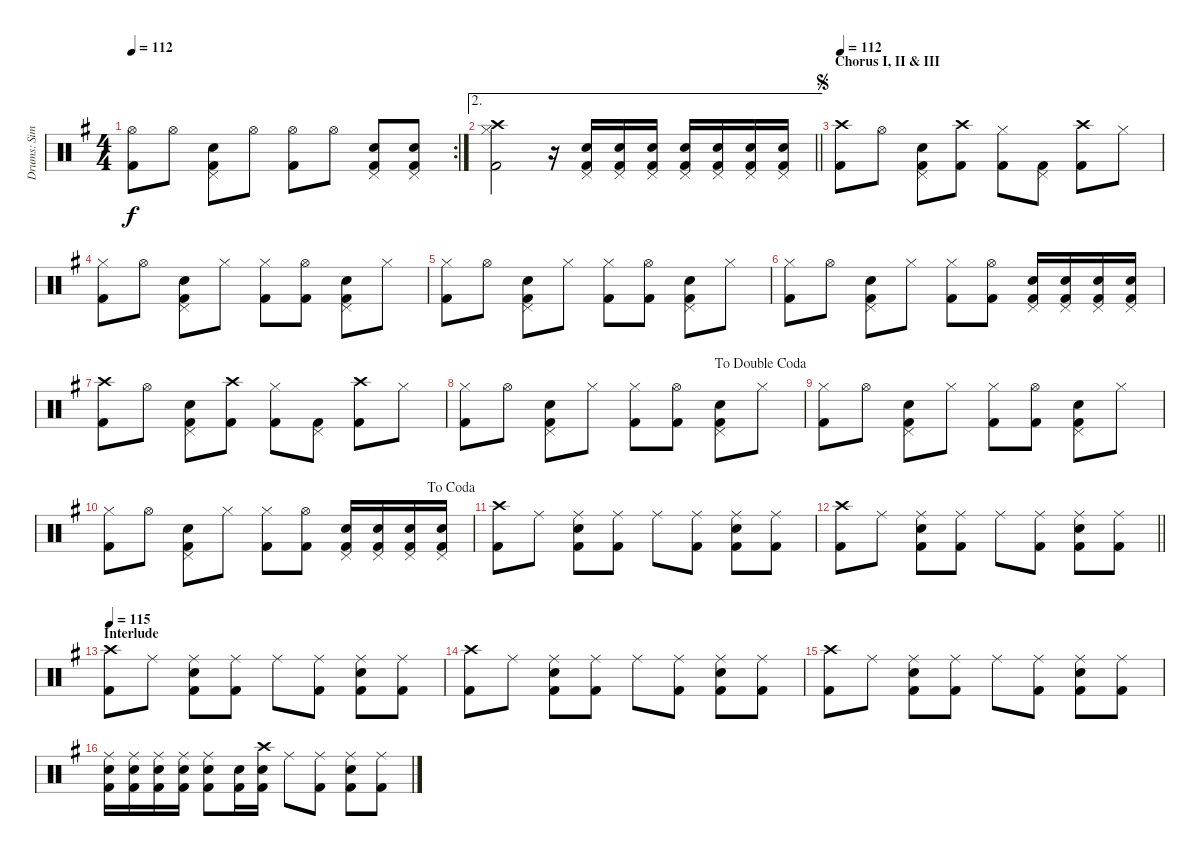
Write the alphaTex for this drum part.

\track ("Drums: Simon" "Drums: Sim") {instrument percussion}
\staff {score}
\articulation defaults
\rc 2
\ts (4 4)
\tempo 112
\clef neutral
\ks g
("Hi-Hat (open)" "Kick (hit) 2").8{dy f} "Hi-Hat (open)".8 ("Pedal Hi-Hat (hit)" "Snare (hit) 2" "Kick (hit) 2").8 "Hi-Hat (open)".8 ("Hi-Hat (open)" "Kick (hit) 2").8 "Hi-Hat (open)".8 ("Pedal Hi-Hat (hit)" "Snare (hit) 2" "Kick (hit) 2").8 ("Pedal Hi-Hat (hit)" "Snare (hit) 2" "Kick (hit) 2").8 |
\ae 2
\barLineRight lightlight
("Crash high (hit)" "Hi-Hat (closed)" "Kick (hit) 2").2 r.16 ("Pedal Hi-Hat (hit)" "Snare (hit) 2" "Kick (hit) 2").16 ("Pedal Hi-Hat (hit)" "Snare (hit) 2" "Kick (hit) 2").16 ("Pedal Hi-Hat (hit)" "Snare (hit) 2" "Kick (hit) 2").16 ("Pedal Hi-Hat (hit)" "Snare (hit) 2" "Kick (hit) 2").16 ("Pedal Hi-Hat (hit)" "Snare (hit) 2" "Kick (hit) 2").16 ("Pedal Hi-Hat (hit)" "Snare (hit) 2" "Kick (hit) 2").16 ("Pedal Hi-Hat (hit)" "Snare (hit) 2" "Kick (hit) 2").16 |
\section ("" "Chorus I, II & III")
\jump segno
\tempo 112
("Crash high (hit)" "Kick (hit) 2").8 "Hi-Hat (open)".8 ("Pedal Hi-Hat (hit)" "Snare (hit) 2" "Kick (hit) 2").8 ("Crash high (hit)" "Kick (hit) 2").8 ("Hi-Hat (closed)" "Kick (hit) 2").8 ("Pedal Hi-Hat (hit)" "Kick (hit) 2").8 ("Crash high (hit)" "Kick (hit) 2").8 "Hi-Hat (closed)".8 |
("Hi-Hat (closed)" "Kick (hit) 2").8 "Hi-Hat (open)".8 ("Pedal Hi-Hat (hit)" "Snare (hit) 2" "Kick (hit) 2").8 "Hi-Hat (closed)".8 ("Hi-Hat (closed)" "Kick (hit) 2").8 ("Hi-Hat (open)" "Kick (hit) 2").8 ("Pedal Hi-Hat (hit)" "Snare (hit) 2" "Kick (hit) 2").8 "Hi-Hat (closed)".8 |
("Hi-Hat (closed)" "Kick (hit) 2").8 "Hi-Hat (open)".8 ("Pedal Hi-Hat (hit)" "Snare (hit) 2" "Kick (hit) 2").8 "Hi-Hat (closed)".8 ("Hi-Hat (closed)" "Kick (hit) 2").8 ("Hi-Hat (open)" "Kick (hit) 2").8 ("Pedal Hi-Hat (hit)" "Snare (hit) 2" "Kick (hit) 2").8 "Hi-Hat (closed)".8 |
("Hi-Hat (closed)" "Kick (hit) 2").8 "Hi-Hat (open)".8 ("Pedal Hi-Hat (hit)" "Snare (hit) 2" "Kick (hit) 2").8 "Hi-Hat (closed)".8 ("Hi-Hat (closed)" "Kick (hit) 2").8 ("Hi-Hat (open)" "Kick (hit) 2").8 ("Pedal Hi-Hat (hit)" "Snare (hit) 2" "Kick (hit) 2").16 ("Pedal Hi-Hat (hit)" "Snare (hit) 2" "Kick (hit) 2").16 ("Pedal Hi-Hat (hit)" "Snare (hit) 2" "Kick (hit) 2").16 ("Pedal Hi-Hat (hit)" "Snare (hit) 2" "Kick (hit) 2").16 |
("Crash high (hit)" "Kick (hit) 2").8 "Hi-Hat (open)".8 ("Pedal Hi-Hat (hit)" "Snare (hit) 2" "Kick (hit) 2").8 ("Crash high (hit)" "Kick (hit) 2").8 ("Hi-Hat (closed)" "Kick (hit) 2").8 ("Pedal Hi-Hat (hit)" "Kick (hit) 2").8 ("Crash high (hit)" "Kick (hit) 2").8 "Hi-Hat (closed)".8 |
\jump dadoublecoda
("Hi-Hat (closed)" "Kick (hit) 2").8 "Hi-Hat (open)".8 ("Pedal Hi-Hat (hit)" "Snare (hit) 2" "Kick (hit) 2").8 "Hi-Hat (closed)".8 ("Hi-Hat (closed)" "Kick (hit) 2").8 ("Hi-Hat (open)" "Kick (hit) 2").8 ("Pedal Hi-Hat (hit)" "Snare (hit) 2" "Kick (hit) 2").8 "Hi-Hat (closed)".8 |
("Hi-Hat (closed)" "Kick (hit) 2").8 "Hi-Hat (open)".8 ("Pedal Hi-Hat (hit)" "Snare (hit) 2" "Kick (hit) 2").8 "Hi-Hat (closed)".8 ("Hi-Hat (closed)" "Kick (hit) 2").8 ("Hi-Hat (open)" "Kick (hit) 2").8 ("Pedal Hi-Hat (hit)" "Snare (hit) 2" "Kick (hit) 2").8 "Hi-Hat (closed)".8 |
\jump dacoda
("Hi-Hat (closed)" "Kick (hit) 2").8 "Hi-Hat (open)".8 ("Pedal Hi-Hat (hit)" "Snare (hit) 2" "Kick (hit) 2").8 "Hi-Hat (closed)".8 ("Hi-Hat (closed)" "Kick (hit) 2").8 ("Hi-Hat (open)" "Kick (hit) 2").8 ("Pedal Hi-Hat (hit)" "Snare (hit) 2" "Kick (hit) 2").16 ("Pedal Hi-Hat (hit)" "Snare (hit) 2" "Kick (hit) 2").16 ("Pedal Hi-Hat (hit)" "Snare (hit) 2" "Kick (hit) 2").16 ("Pedal Hi-Hat (hit)" "Snare (hit) 2" "Kick (hit) 2").16 |
("Crash high (hit)" "Kick (hit) 2").8 "Ride (middle)".8 ("Ride (middle)" "Snare (hit) 2" "Kick (hit) 2").8 ("Ride (middle)" "Kick (hit) 2").8 "Ride (middle)".8 ("Ride (middle)" "Kick (hit) 2").8 ("Ride (middle)" "Snare (hit) 2" "Kick (hit) 2").8 ("Ride (middle)" "Kick (hit) 2").8 |
\barLineRight lightlight
("Crash high (hit)" "Kick (hit) 2").8 "Ride (middle)".8 ("Ride (middle)" "Snare (hit) 2" "Kick (hit) 2").8 ("Ride (middle)" "Kick (hit) 2").8 "Ride (middle)".8 ("Ride (middle)" "Kick (hit) 2").8 ("Ride (middle)" "Snare (hit) 2" "Kick (hit) 2").8 ("Ride (middle)" "Kick (hit) 2").8 |
\section ("" "Interlude")
\tempo 115
("Crash high (hit)" "Kick (hit) 2").8 "Ride (middle)".8 ("Ride (middle)" "Snare (hit) 2" "Kick (hit) 2").8 ("Ride (middle)" "Kick (hit) 2").8 "Ride (middle)".8 ("Ride (middle)" "Kick (hit) 2").8 ("Ride (middle)" "Snare (hit) 2" "Kick (hit) 2").8 ("Ride (middle)" "Kick (hit) 2").8 |
("Crash high (hit)" "Kick (hit) 2").8 "Ride (middle)".8 ("Ride (middle)" "Snare (hit) 2" "Kick (hit) 2").8 ("Ride (middle)" "Kick (hit) 2").8 "Ride (middle)".8 ("Ride (middle)" "Kick (hit) 2").8 ("Ride (middle)" "Snare (hit) 2" "Kick (hit) 2").8 ("Ride (middle)" "Kick (hit) 2").8 |
("Crash high (hit)" "Kick (hit) 2").8 "Ride (middle)".8 ("Ride (middle)" "Snare (hit) 2" "Kick (hit) 2").8 ("Ride (middle)" "Kick (hit) 2").8 "Ride (middle)".8 ("Ride (middle)" "Kick (hit) 2").8 ("Ride (middle)" "Snare (hit) 2" "Kick (hit) 2").8 ("Ride (middle)" "Kick (hit) 2").8 |
("Ride (middle)" "Snare (hit) 2" "Kick (hit) 2").16 ("Ride (middle)" "Snare (hit) 2" "Kick (hit) 2").16 ("Ride (middle)" "Snare (hit) 2" "Kick (hit) 2").16 ("Ride (middle)" "Snare (hit) 2" "Kick (hit) 2").16 ("Ride (middle)" "Snare (hit) 2" "Kick (hit) 2").8 ("Snare (hit) 2" "Kick (hit) 2").16 ("Crash high (hit)" "Snare (hit) 2" "Kick (hit) 2").16 "Ride (middle)".8 ("Ride (middle)" "Kick (hit) 2").8 ("Ride (middle)" "Snare (hit) 2" "Kick (hit) 2").8 ("Ride (middle)" "Kick (hit) 2").8
